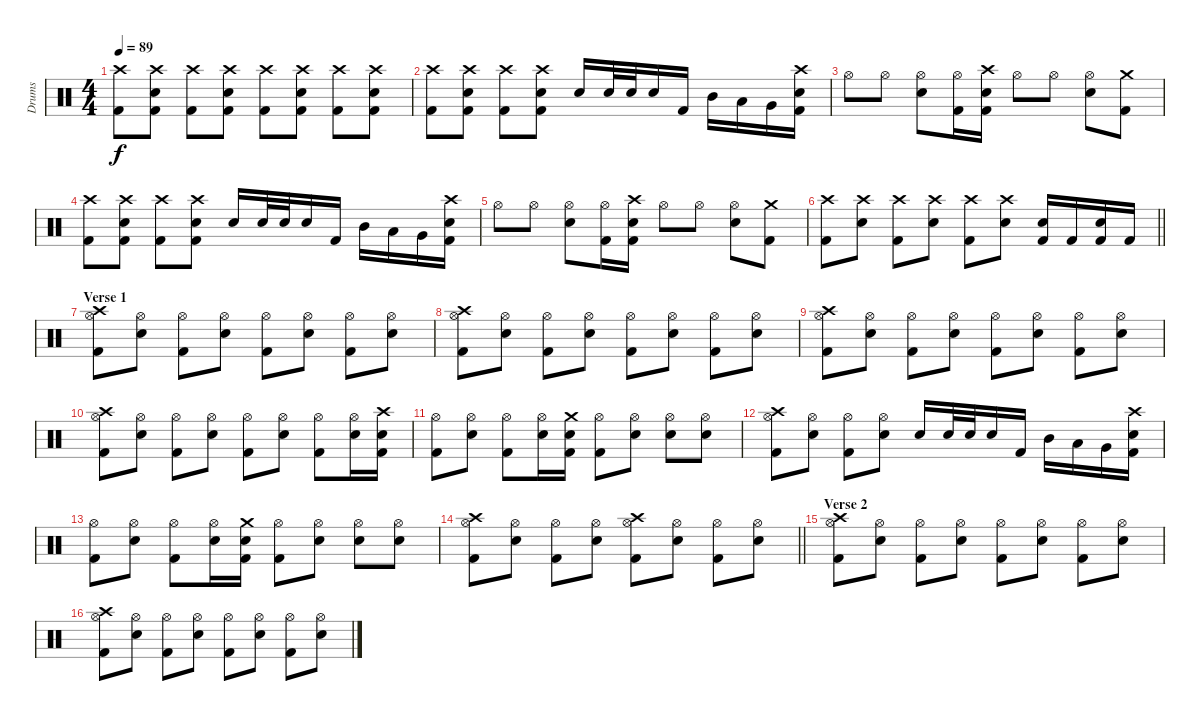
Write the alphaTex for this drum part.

\track ("Drums" "Drums") {instrument percussion}
\staff {score}
\articulation defaults
\ts (4 4)
\tempo 89
\clef neutral
\ks c
("Crash high (hit)" "Kick (hit) 2").8{dy f} ("Crash high (hit)" "Snare (hit) 2" "Kick (hit) 2").8 ("Crash high (hit)" "Kick (hit) 2").8 ("Crash high (hit)" "Snare (hit) 2" "Kick (hit) 2").8 ("Crash high (hit)" "Kick (hit) 2").8 ("Crash high (hit)" "Snare (hit) 2" "Kick (hit) 2").8 ("Crash high (hit)" "Kick (hit) 2").8 ("Crash high (hit)" "Snare (hit) 2" "Kick (hit) 2").8 |
("Crash high (hit)" "Kick (hit) 2").8 ("Crash high (hit)" "Snare (hit) 2" "Kick (hit) 2").8 ("Crash high (hit)" "Kick (hit) 2").8 ("Crash high (hit)" "Snare (hit) 2" "Kick (hit) 2").8 "Snare (hit) 2".16 "Snare (hit) 2".32 "Snare (hit) 2".32 "Snare (hit) 2".16 "Kick (hit) 2".16 "Mid Tom (hit)".16 "Low Tom (hit)".16 "Very Low Tom (hit)".16 ("Crash high (hit)" "Snare (hit) 2" "Kick (hit) 2").16 |
"Hi-Hat (open)".8 "Hi-Hat (open)".8 ("Hi-Hat (open)" "Snare (hit) 2").8 ("Hi-Hat (open)" "Kick (hit) 2").16 ("Crash high (hit)" "Snare (hit) 2" "Kick (hit) 2").16 "Hi-Hat (open)".8 "Hi-Hat (open)".8 ("Hi-Hat (open)" "Snare (hit) 2").8 ("Crash medium (hit)" "Kick (hit) 2").8 |
("Crash high (hit)" "Kick (hit) 2").8 ("Crash high (hit)" "Snare (hit) 2" "Kick (hit) 2").8 ("Crash high (hit)" "Kick (hit) 2").8 ("Crash high (hit)" "Snare (hit) 2" "Kick (hit) 2").8 "Snare (hit) 2".16 "Snare (hit) 2".32 "Snare (hit) 2".32 "Snare (hit) 2".16 "Kick (hit) 2".16 "Mid Tom (hit)".16 "Low Tom (hit)".16 "Very Low Tom (hit)".16 ("Crash high (hit)" "Snare (hit) 2" "Kick (hit) 2").16 |
"Hi-Hat (open)".8 "Hi-Hat (open)".8 ("Hi-Hat (open)" "Snare (hit) 2").8 ("Hi-Hat (open)" "Kick (hit) 2").16 ("Crash high (hit)" "Snare (hit) 2" "Kick (hit) 2").16 "Hi-Hat (open)".8 "Hi-Hat (open)".8 ("Hi-Hat (open)" "Snare (hit) 2").8 ("Crash medium (hit)" "Kick (hit) 2").8 |
\barLineRight lightlight
("Crash high (hit)" "Kick (hit) 2").8 ("Crash high (hit)" "Snare (hit) 2").8 ("Crash high (hit)" "Kick (hit) 2").8 ("Crash high (hit)" "Snare (hit) 2").8 ("Crash high (hit)" "Kick (hit) 2").8 ("Crash high (hit)" "Snare (hit) 2").8 ("Snare (hit) 2" "Kick (hit) 2").16 "Kick (hit) 2".16 ("Snare (hit) 2" "Kick (hit) 2").16 "Kick (hit) 2".16 |
\section ("" "Verse 1")
("Crash high (hit)" "Hi-Hat (open)" "Kick (hit) 2").8 ("Hi-Hat (open)" "Snare (hit) 2").8 ("Hi-Hat (open)" "Kick (hit) 2").8 ("Hi-Hat (open)" "Snare (hit) 2").8 ("Hi-Hat (open)" "Kick (hit) 2").8 ("Hi-Hat (open)" "Snare (hit) 2").8 ("Hi-Hat (open)" "Kick (hit) 2").8 ("Hi-Hat (open)" "Snare (hit) 2").8 |
("Crash high (hit)" "Hi-Hat (open)" "Kick (hit) 2").8 ("Hi-Hat (open)" "Snare (hit) 2").8 ("Hi-Hat (open)" "Kick (hit) 2").8 ("Hi-Hat (open)" "Snare (hit) 2").8 ("Hi-Hat (open)" "Kick (hit) 2").8 ("Hi-Hat (open)" "Snare (hit) 2").8 ("Hi-Hat (open)" "Kick (hit) 2").8 ("Hi-Hat (open)" "Snare (hit) 2").8 |
("Crash high (hit)" "Hi-Hat (open)" "Kick (hit) 2").8 ("Hi-Hat (open)" "Snare (hit) 2").8 ("Hi-Hat (open)" "Kick (hit) 2").8 ("Hi-Hat (open)" "Snare (hit) 2").8 ("Hi-Hat (open)" "Kick (hit) 2").8 ("Hi-Hat (open)" "Snare (hit) 2").8 ("Hi-Hat (open)" "Kick (hit) 2").8 ("Hi-Hat (open)" "Snare (hit) 2").8 |
("Crash high (hit)" "Hi-Hat (open)" "Kick (hit) 2").8 ("Hi-Hat (open)" "Snare (hit) 2").8 ("Hi-Hat (open)" "Kick (hit) 2").8 ("Hi-Hat (open)" "Snare (hit) 2").8 ("Hi-Hat (open)" "Kick (hit) 2").8 ("Hi-Hat (open)" "Snare (hit) 2").8 ("Hi-Hat (open)" "Kick (hit) 2").8 ("Hi-Hat (open)" "Snare (hit) 2").16 ("Crash high (hit)" "Snare (hit) 2" "Kick (hit) 2").16 |
("Hi-Hat (open)" "Kick (hit) 2").8 ("Hi-Hat (open)" "Snare (hit) 2").8 ("Hi-Hat (open)" "Kick (hit) 2").8 ("Hi-Hat (open)" "Snare (hit) 2").16 ("Crash medium (hit)" "Snare (hit) 2" "Kick (hit) 2").16 ("Hi-Hat (open)" "Kick (hit) 2").8 ("Hi-Hat (open)" "Snare (hit) 2").8 ("Hi-Hat (open)" "Snare (hit) 2").8 ("Hi-Hat (open)" "Snare (hit) 2").8 |
("Crash high (hit)" "Hi-Hat (open)" "Kick (hit) 2").8 ("Hi-Hat (open)" "Snare (hit) 2").8 ("Hi-Hat (open)" "Kick (hit) 2").8 ("Hi-Hat (open)" "Snare (hit) 2").8 "Snare (hit) 2".16 "Snare (hit) 2".32 "Snare (hit) 2".32 "Snare (hit) 2".16 "Kick (hit) 2".16 "Mid Tom (hit)".16 "Low Tom (hit)".16 "Very Low Tom (hit)".16 ("Crash high (hit)" "Snare (hit) 2" "Kick (hit) 2").16 |
("Hi-Hat (open)" "Kick (hit) 2").8 ("Hi-Hat (open)" "Snare (hit) 2").8 ("Hi-Hat (open)" "Kick (hit) 2").8 ("Hi-Hat (open)" "Snare (hit) 2").16 ("Crash medium (hit)" "Snare (hit) 2" "Kick (hit) 2").16 ("Hi-Hat (open)" "Kick (hit) 2").8 ("Hi-Hat (open)" "Snare (hit) 2").8 ("Hi-Hat (open)" "Snare (hit) 2").8 ("Hi-Hat (open)" "Snare (hit) 2").8 |
\barLineRight lightlight
("Crash high (hit)" "Hi-Hat (open)" "Kick (hit) 2").8 ("Hi-Hat (open)" "Snare (hit) 2").8 ("Hi-Hat (open)" "Kick (hit) 2").8 ("Hi-Hat (open)" "Snare (hit) 2").8 ("Crash high (hit)" "Hi-Hat (open)" "Kick (hit) 2").8 ("Hi-Hat (open)" "Snare (hit) 2").8 ("Hi-Hat (open)" "Kick (hit) 2").8 ("Hi-Hat (open)" "Snare (hit) 2").8 |
\section ("" "Verse 2")
("Crash high (hit)" "Hi-Hat (open)" "Kick (hit) 2").8 ("Hi-Hat (open)" "Snare (hit) 2").8 ("Hi-Hat (open)" "Kick (hit) 2").8 ("Hi-Hat (open)" "Snare (hit) 2").8 ("Hi-Hat (open)" "Kick (hit) 2").8 ("Hi-Hat (open)" "Snare (hit) 2").8 ("Hi-Hat (open)" "Kick (hit) 2").8 ("Hi-Hat (open)" "Snare (hit) 2").8 |
("Crash high (hit)" "Hi-Hat (open)" "Kick (hit) 2").8 ("Hi-Hat (open)" "Snare (hit) 2").8 ("Hi-Hat (open)" "Kick (hit) 2").8 ("Hi-Hat (open)" "Snare (hit) 2").8 ("Hi-Hat (open)" "Kick (hit) 2").8 ("Hi-Hat (open)" "Snare (hit) 2").8 ("Hi-Hat (open)" "Kick (hit) 2").8 ("Hi-Hat (open)" "Snare (hit) 2").8
